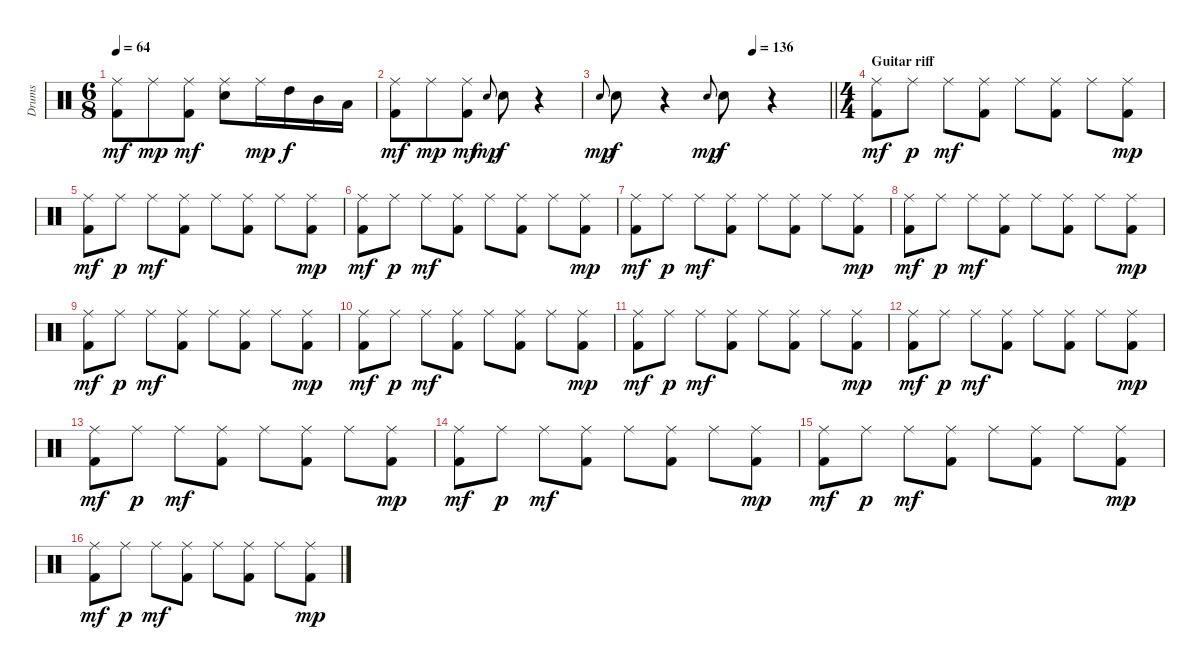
\track ("Drums" "Drums") {instrument percussion}
\staff {score}
\articulation defaults
\ts (6 8)
\tempo 64
\clef neutral
\ks c
("Ride (middle)" "Kick (hit) 2").8{dy mf} "Ride (middle)".8{dy mp} ("Ride (middle)" "Kick (hit) 2").8{dy mf} ("Ride (middle)" "Snare (hit) 2").8 "Ride (middle)".16{dy mp} "High Tom (hit)".16{dy f} "Mid Tom (hit)".16 "Low Tom (hit)".16 |
("Ride (middle)" "Kick (hit) 2").8{dy mf} "Ride (middle)".8{dy mp} ("Ride (middle)" "Kick (hit) 2").8{dy mf} "Snare (hit) 2".8{gr onbeat dy mp} "Snare (hit) 2".8{dy f} r.4 |
\tempo (136 0.6666666666666666)
\barLineRight lightlight "Snare (hit) 2".8{gr onbeat dy mp} "Snare (hit) 2".8{dy f}
r.4 "Snare (hit) 2".8{gr onbeat dy mp} "Snare (hit) 2".8{dy f} r.4 |
\ts (4 4)
\section ("" "Guitar riff")
("Ride (middle)" "Kick (hit) 2").8{dy mf} "Ride (middle)".8{dy p} "Ride (middle)".8{dy mf} ("Ride (middle)" "Kick (hit) 2").8 "Ride (middle)".8 ("Ride (middle)" "Kick (hit) 2").8 "Ride (middle)".8 ("Ride (middle)" "Kick (hit) 2").8{dy mp} |
("Ride (middle)" "Kick (hit) 2").8{dy mf} "Ride (middle)".8{dy p} "Ride (middle)".8{dy mf} ("Ride (middle)" "Kick (hit) 2").8 "Ride (middle)".8 ("Ride (middle)" "Kick (hit) 2").8 "Ride (middle)".8 ("Ride (middle)" "Kick (hit) 2").8{dy mp} |
("Ride (middle)" "Kick (hit) 2").8{dy mf} "Ride (middle)".8{dy p} "Ride (middle)".8{dy mf} ("Ride (middle)" "Kick (hit) 2").8 "Ride (middle)".8 ("Ride (middle)" "Kick (hit) 2").8 "Ride (middle)".8 ("Ride (middle)" "Kick (hit) 2").8{dy mp} |
("Ride (middle)" "Kick (hit) 2").8{dy mf} "Ride (middle)".8{dy p} "Ride (middle)".8{dy mf} ("Ride (middle)" "Kick (hit) 2").8 "Ride (middle)".8 ("Ride (middle)" "Kick (hit) 2").8 "Ride (middle)".8 ("Ride (middle)" "Kick (hit) 2").8{dy mp} |
("Ride (middle)" "Kick (hit) 2").8{dy mf} "Ride (middle)".8{dy p} "Ride (middle)".8{dy mf} ("Ride (middle)" "Kick (hit) 2").8 "Ride (middle)".8 ("Ride (middle)" "Kick (hit) 2").8 "Ride (middle)".8 ("Ride (middle)" "Kick (hit) 2").8{dy mp} |
("Ride (middle)" "Kick (hit) 2").8{dy mf} "Ride (middle)".8{dy p} "Ride (middle)".8{dy mf} ("Ride (middle)" "Kick (hit) 2").8 "Ride (middle)".8 ("Ride (middle)" "Kick (hit) 2").8 "Ride (middle)".8 ("Ride (middle)" "Kick (hit) 2").8{dy mp} |
("Ride (middle)" "Kick (hit) 2").8{dy mf} "Ride (middle)".8{dy p} "Ride (middle)".8{dy mf} ("Ride (middle)" "Kick (hit) 2").8 "Ride (middle)".8 ("Ride (middle)" "Kick (hit) 2").8 "Ride (middle)".8 ("Ride (middle)" "Kick (hit) 2").8{dy mp} |
("Ride (middle)" "Kick (hit) 2").8{dy mf} "Ride (middle)".8{dy p} "Ride (middle)".8{dy mf} ("Ride (middle)" "Kick (hit) 2").8 "Ride (middle)".8 ("Ride (middle)" "Kick (hit) 2").8 "Ride (middle)".8 ("Ride (middle)" "Kick (hit) 2").8{dy mp} |
("Ride (middle)" "Kick (hit) 2").8{dy mf} "Ride (middle)".8{dy p} "Ride (middle)".8{dy mf} ("Ride (middle)" "Kick (hit) 2").8 "Ride (middle)".8 ("Ride (middle)" "Kick (hit) 2").8 "Ride (middle)".8 ("Ride (middle)" "Kick (hit) 2").8{dy mp} |
("Ride (middle)" "Kick (hit) 2").8{dy mf} "Ride (middle)".8{dy p} "Ride (middle)".8{dy mf} ("Ride (middle)" "Kick (hit) 2").8 "Ride (middle)".8 ("Ride (middle)" "Kick (hit) 2").8 "Ride (middle)".8 ("Ride (middle)" "Kick (hit) 2").8{dy mp} |
("Ride (middle)" "Kick (hit) 2").8{dy mf} "Ride (middle)".8{dy p} "Ride (middle)".8{dy mf} ("Ride (middle)" "Kick (hit) 2").8 "Ride (middle)".8 ("Ride (middle)" "Kick (hit) 2").8 "Ride (middle)".8 ("Ride (middle)" "Kick (hit) 2").8{dy mp} |
("Ride (middle)" "Kick (hit) 2").8{dy mf} "Ride (middle)".8{dy p} "Ride (middle)".8{dy mf} ("Ride (middle)" "Kick (hit) 2").8 "Ride (middle)".8 ("Ride (middle)" "Kick (hit) 2").8 "Ride (middle)".8 ("Ride (middle)" "Kick (hit) 2").8{dy mp} |
("Ride (middle)" "Kick (hit) 2").8{dy mf} "Ride (middle)".8{dy p} "Ride (middle)".8{dy mf} ("Ride (middle)" "Kick (hit) 2").8 "Ride (middle)".8 ("Ride (middle)" "Kick (hit) 2").8 "Ride (middle)".8 ("Ride (middle)" "Kick (hit) 2").8{dy mp}
